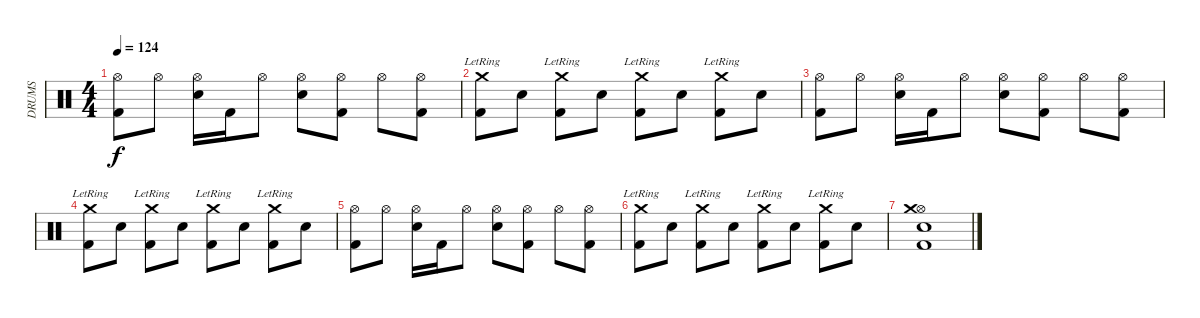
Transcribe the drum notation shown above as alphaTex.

\track ("DRUMS" "DRUMS") {instrument percussion}
\staff {score}
\articulation defaults
\ts (4 4)
\tempo 124
\clef neutral
\ks c
("Kick (hit) 2" "Hi-Hat (open)").8{dy f} "Hi-Hat (open)".8 ("Snare (hit) 2" "Hi-Hat (open)").16 "Kick (hit) 2".16 "Hi-Hat (open)".8 ("Snare (hit) 2" "Hi-Hat (open)").8 ("Kick (hit) 2" "Hi-Hat (open)").8 "Hi-Hat (open)".8 ("Kick (hit) 2" "Hi-Hat (open)").8 |
("Kick (hit) 2" "Crash medium (hit)"{lr}).8 "Snare (hit) 2".8 ("Kick (hit) 2" "Crash medium (hit)"{lr}).8 "Snare (hit) 2".8 ("Kick (hit) 2" "Crash medium (hit)"{lr}).8 "Snare (hit) 2".8 ("Kick (hit) 2" "Crash medium (hit)"{lr}).8 "Snare (hit) 2".8 |
("Kick (hit) 2" "Hi-Hat (open)").8 "Hi-Hat (open)".8 ("Snare (hit) 2" "Hi-Hat (open)").16 "Kick (hit) 2".16 "Hi-Hat (open)".8 ("Snare (hit) 2" "Hi-Hat (open)").8 ("Kick (hit) 2" "Hi-Hat (open)").8 "Hi-Hat (open)".8 ("Kick (hit) 2" "Hi-Hat (open)").8 |
("Kick (hit) 2" "Crash medium (hit)"{lr}).8 "Snare (hit) 2".8 ("Kick (hit) 2" "Crash medium (hit)"{lr}).8 "Snare (hit) 2".8 ("Kick (hit) 2" "Crash medium (hit)"{lr}).8 "Snare (hit) 2".8 ("Kick (hit) 2" "Crash medium (hit)"{lr}).8 "Snare (hit) 2".8 |
("Kick (hit) 2" "Hi-Hat (open)").8 "Hi-Hat (open)".8 ("Snare (hit) 2" "Hi-Hat (open)").16 "Kick (hit) 2".16 "Hi-Hat (open)".8 ("Snare (hit) 2" "Hi-Hat (open)").8 ("Kick (hit) 2" "Hi-Hat (open)").8 "Hi-Hat (open)".8 ("Kick (hit) 2" "Hi-Hat (open)").8 |
("Kick (hit) 2" "Crash medium (hit)"{lr}).8 "Snare (hit) 2".8 ("Kick (hit) 2" "Crash medium (hit)"{lr}).8 "Snare (hit) 2".8 ("Kick (hit) 2" "Crash medium (hit)"{lr}).8 "Snare (hit) 2".8 ("Kick (hit) 2" "Crash medium (hit)"{lr}).8 "Snare (hit) 2".8 |
("Kick (hit) 2" "Snare (hit) 2" "Hi-Hat (open)" "Crash medium (hit)").1
